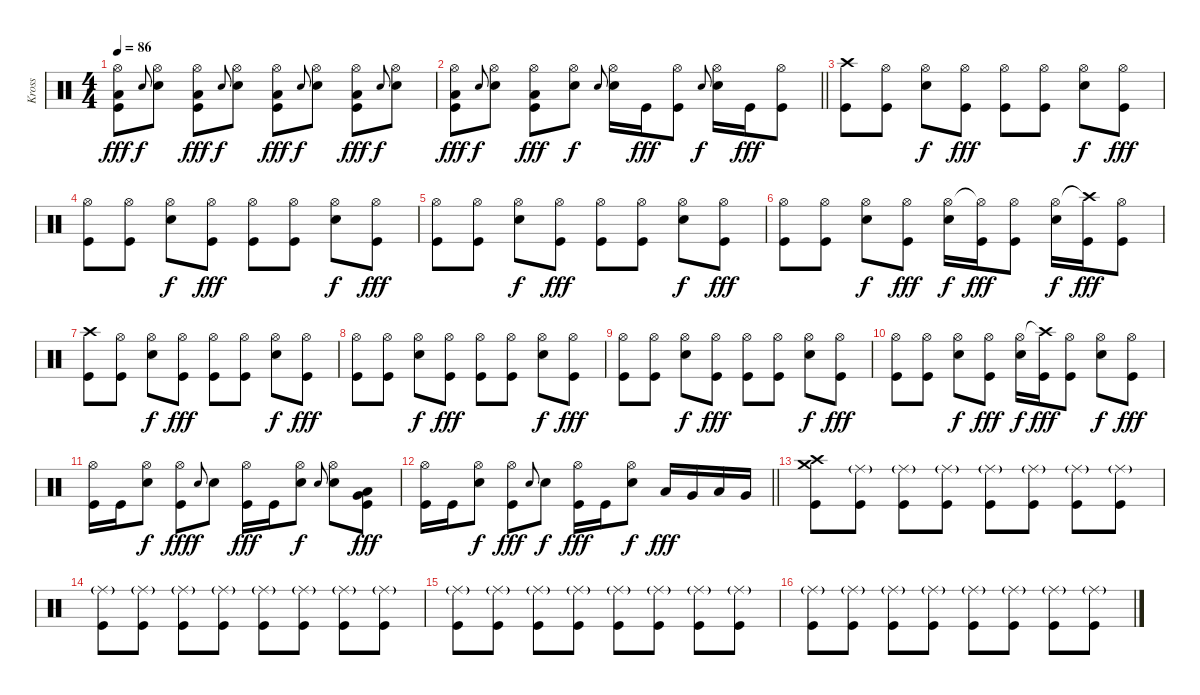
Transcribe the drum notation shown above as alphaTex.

\track ("Kross" "Kross") {instrument percussion}
\staff {score}
\articulation defaults
\ts (4 4)
\tempo 86
\clef neutral
\ks c
("Hi-Hat (open)" "Low Floor Tom (hit)" "Kick (hit)").8{dy fff} "Electric Snare (hit)"{h}.8{gr onbeat dy f} ("Hi-Hat (open)" "Electric Snare (hit)").8 ("Hi-Hat (open)" "Low Floor Tom (hit)" "Kick (hit)").8{dy fff} "Electric Snare (hit)".8{gr onbeat dy f} ("Hi-Hat (open)" "Electric Snare (hit)").8 ("Hi-Hat (open)" "Low Floor Tom (hit)" "Kick (hit)").8{dy fff} "Electric Snare (hit)".8{gr onbeat dy f} ("Hi-Hat (open)" "Electric Snare (hit)").8 ("Hi-Hat (open)" "Low Floor Tom (hit)" "Kick (hit)").8{dy fff} "Electric Snare (hit)".8{gr onbeat dy f} ("Hi-Hat (open)" "Electric Snare (hit)").8 |
\barLineRight lightlight
("Hi-Hat (open)" "Low Floor Tom (hit)" "Kick (hit)").8{dy fff} "Electric Snare (hit)".8{gr onbeat dy f} ("Hi-Hat (open)" "Electric Snare (hit)").8 ("Hi-Hat (open)" "Low Floor Tom (hit)" "Kick (hit)").8{dy fff} ("Hi-Hat (open)" "Electric Snare (hit)").8{dy f} "Electric Snare (hit)".8{gr onbeat} ("Hi-Hat (open)" "Electric Snare (hit)").16 "Kick (hit)".16{dy fff} ("Hi-Hat (open)" "Kick (hit)").8 "Electric Snare (hit)".8{gr onbeat dy f} ("Hi-Hat (open)" "Electric Snare (hit)").16 "Kick (hit)".16{dy fff} ("Hi-Hat (open)" "Kick (hit)").8 |
("Crash high (hit)" "Kick (hit)").8 ("Hi-Hat (open)" "Kick (hit)").8 ("Hi-Hat (open)" "Electric Snare (hit)").8{dy f} ("Hi-Hat (open)" "Kick (hit)").8{dy fff} ("Hi-Hat (open)" "Kick (hit)").8 ("Hi-Hat (open)" "Kick (hit)").8 ("Hi-Hat (open)" "Electric Snare (hit)").8{dy f} ("Hi-Hat (open)" "Kick (hit)").8{dy fff} |
("Hi-Hat (open)" "Kick (hit)").8 ("Hi-Hat (open)" "Kick (hit)").8 ("Hi-Hat (open)" "Electric Snare (hit)").8{dy f} ("Hi-Hat (open)" "Kick (hit)").8{dy fff} ("Hi-Hat (open)" "Kick (hit)").8 ("Hi-Hat (open)" "Kick (hit)").8 ("Hi-Hat (open)" "Electric Snare (hit)").8{dy f} ("Hi-Hat (open)" "Kick (hit)").8{dy fff} |
("Hi-Hat (open)" "Kick (hit)").8 ("Hi-Hat (open)" "Kick (hit)").8 ("Hi-Hat (open)" "Electric Snare (hit)").8{dy f} ("Hi-Hat (open)" "Kick (hit)").8{dy fff} ("Hi-Hat (open)" "Kick (hit)").8 ("Hi-Hat (open)" "Kick (hit)").8 ("Hi-Hat (open)" "Electric Snare (hit)").8{dy f} ("Hi-Hat (open)" "Kick (hit)").8{dy fff} |
("Hi-Hat (open)" "Kick (hit)").8 ("Hi-Hat (open)" "Kick (hit)").8 ("Hi-Hat (open)" "Electric Snare (hit)").8{dy f} ("Hi-Hat (open)" "Kick (hit)").8{dy fff} ("Hi-Hat (open)" "Electric Snare (hit)").16{dy f} ("Hi-Hat (open)"{t} "Kick (hit)").16{dy fff} ("Hi-Hat (open)" "Kick (hit)").8 ("Hi-Hat (open)" "Electric Snare (hit)").16{dy f} ("Crash high (hit)"{t} "Kick (hit)").16{dy fff} ("Hi-Hat (open)" "Kick (hit)").8 |
("Crash high (hit)" "Kick (hit)").8 ("Hi-Hat (open)" "Kick (hit)").8 ("Hi-Hat (open)" "Electric Snare (hit)").8{dy f} ("Hi-Hat (open)" "Kick (hit)").8{dy fff} ("Hi-Hat (open)" "Kick (hit)").8 ("Hi-Hat (open)" "Kick (hit)").8 ("Hi-Hat (open)" "Electric Snare (hit)").8{dy f} ("Hi-Hat (open)" "Kick (hit)").8{dy fff} |
("Hi-Hat (open)" "Kick (hit)").8 ("Hi-Hat (open)" "Kick (hit)").8 ("Hi-Hat (open)" "Electric Snare (hit)").8{dy f} ("Hi-Hat (open)" "Kick (hit)").8{dy fff} ("Hi-Hat (open)" "Kick (hit)").8 ("Hi-Hat (open)" "Kick (hit)").8 ("Hi-Hat (open)" "Electric Snare (hit)").8{dy f} ("Hi-Hat (open)" "Kick (hit)").8{dy fff} |
("Hi-Hat (open)" "Kick (hit)").8 ("Hi-Hat (open)" "Kick (hit)").8 ("Hi-Hat (open)" "Electric Snare (hit)").8{dy f} ("Hi-Hat (open)" "Kick (hit)").8{dy fff} ("Hi-Hat (open)" "Kick (hit)").8 ("Hi-Hat (open)" "Kick (hit)").8 ("Hi-Hat (open)" "Electric Snare (hit)").8{dy f} ("Hi-Hat (open)" "Kick (hit)").8{dy fff} |
("Hi-Hat (open)" "Kick (hit)").8 ("Hi-Hat (open)" "Kick (hit)").8 ("Hi-Hat (open)" "Electric Snare (hit)").8{dy f} ("Hi-Hat (open)" "Kick (hit)").8{dy fff} ("Hi-Hat (open)" "Electric Snare (hit)").16{dy f} ("Crash high (hit)"{t} "Kick (hit)").16{dy fff} ("Hi-Hat (open)" "Kick (hit)").8 ("Hi-Hat (open)" "Electric Snare (hit)").8{dy f} ("Hi-Hat (open)" "Kick (hit)").8{dy fff} |
("Hi-Hat (open)" "Kick (hit)").16 "Kick (hit)".16 ("Hi-Hat (open)" "Electric Snare (hit)").8{dy f} ("Hi-Hat (open)" "Kick (hit)").8{dy fff} "Electric Snare (hit)".8{gr onbeat dy f} "Electric Snare (hit)".8 ("Hi-Hat (open)" "Kick (hit)").16{dy fff} "Kick (hit)".16 ("Hi-Hat (open)" "Electric Snare (hit)").8{dy f} "Electric Snare (hit)".8{gr onbeat} ("Hi-Hat (open)" "Electric Snare (hit)").8 ("Very Low Tom (hit)" "Low Tom (hit)" "Kick (hit)").8{dy fff} |
\barLineRight lightlight
("Hi-Hat (open)" "Kick (hit)").16 "Kick (hit)".16 ("Hi-Hat (open)" "Electric Snare (hit)").8{dy f} ("Hi-Hat (open)" "Kick (hit)").8{dy fff} "Electric Snare (hit)".8{gr onbeat} "Electric Snare (hit)".8{dy f} ("Hi-Hat (open)" "Kick (hit)").16{dy fff} "Kick (hit)".16 ("Hi-Hat (open)" "Electric Snare (hit)").8{dy f} "Low Tom (hit)".16{dy fff} "Very Low Tom (hit)".16 "Low Tom (hit)".16 "Very Low Tom (hit)".16 |
("Crash high (hit)" "Crash medium (hit)" "Kick (hit)").8 ("Ride (middle)"{g} "Kick (hit)").8 ("Ride (middle)"{g} "Kick (hit)").8 ("Ride (middle)"{g} "Kick (hit)").8 ("Ride (middle)"{g} "Kick (hit)").8 ("Ride (middle)"{g} "Kick (hit)").8 ("Ride (middle)"{g} "Kick (hit)").8 ("Ride (middle)"{g} "Kick (hit)").8 |
("Ride (middle)"{g} "Kick (hit)").8 ("Ride (middle)"{g} "Kick (hit)").8 ("Ride (middle)"{g} "Kick (hit)").8 ("Ride (middle)"{g} "Kick (hit)").8 ("Ride (middle)"{g} "Kick (hit)").8 ("Ride (middle)"{g} "Kick (hit)").8 ("Ride (middle)"{g} "Kick (hit)").8 ("Ride (middle)"{g} "Kick (hit)").8 |
("Ride (middle)"{g} "Kick (hit)").8 ("Ride (middle)"{g} "Kick (hit)").8 ("Ride (middle)"{g} "Kick (hit)").8 ("Ride (middle)"{g} "Kick (hit)").8 ("Ride (middle)"{g} "Kick (hit)").8 ("Ride (middle)"{g} "Kick (hit)").8 ("Ride (middle)"{g} "Kick (hit)").8 ("Ride (middle)"{g} "Kick (hit)").8 |
("Ride (middle)"{g} "Kick (hit)").8 ("Ride (middle)"{g} "Kick (hit)").8 ("Ride (middle)"{g} "Kick (hit)").8 ("Ride (middle)"{g} "Kick (hit)").8 ("Ride (middle)"{g} "Kick (hit)").8 ("Ride (middle)"{g} "Kick (hit)").8 ("Ride (middle)"{g} "Kick (hit)").8 ("Ride (middle)"{g} "Kick (hit)").8
